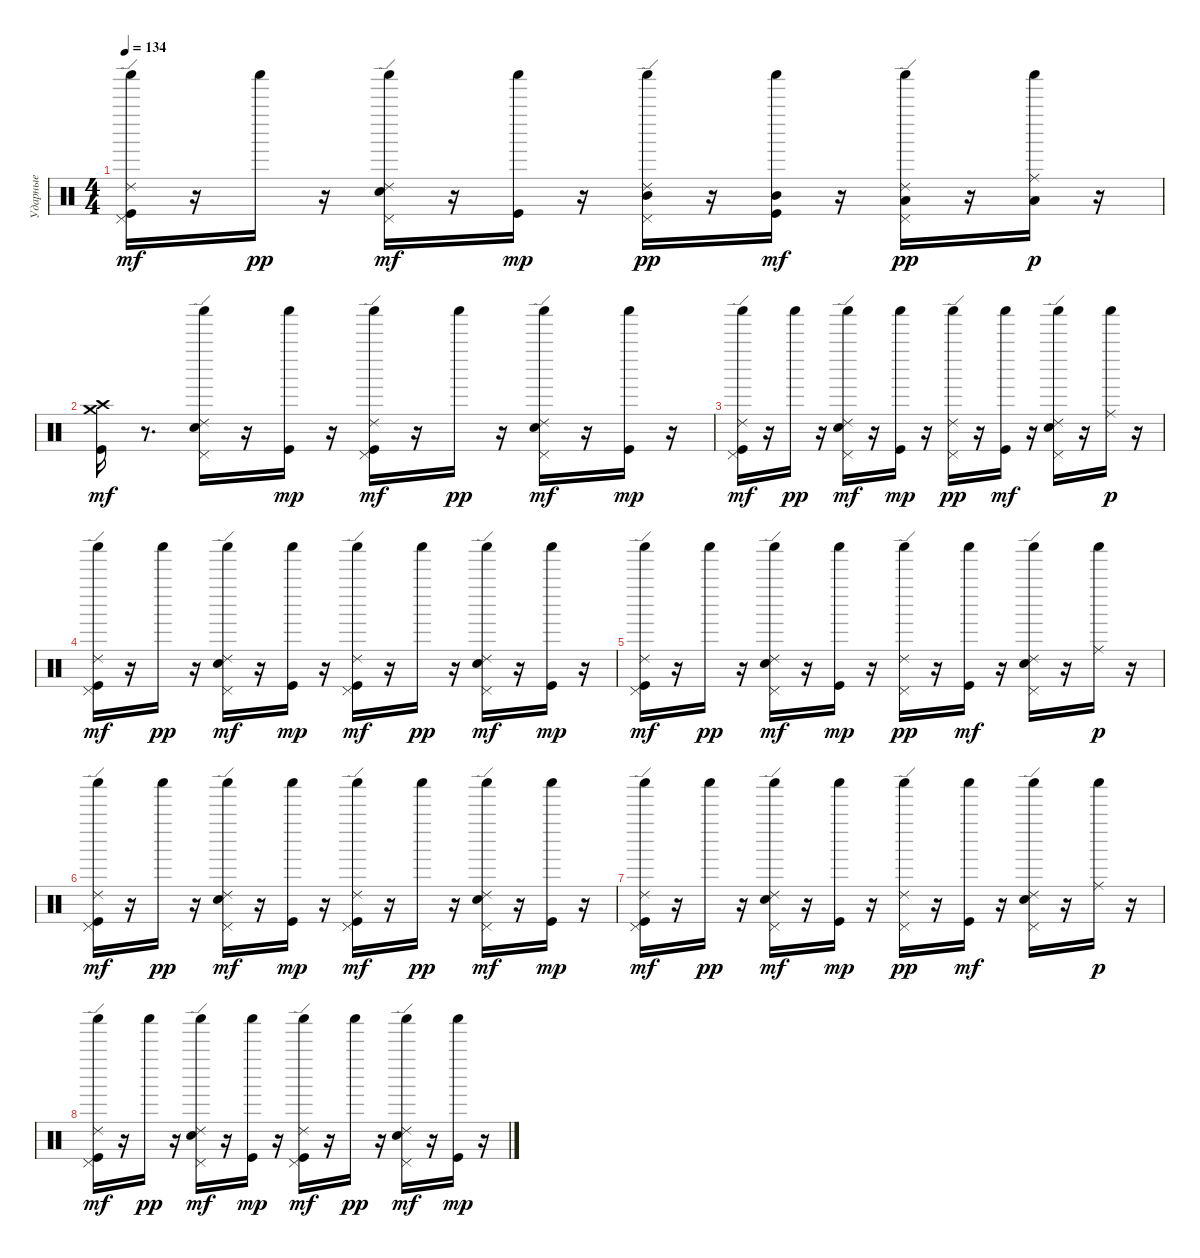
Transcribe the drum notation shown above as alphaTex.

\track ("Ударные" "Ударные") {instrument percussion}
\staff {score}
\articulation defaults
\ts (4 4)
\tempo 134
\clef neutral
\ks c
("Pedal Hi-Hat (hit)" "Ride (edge) 2" "Shaker (hit)" "Kick (hit)").16{dy mf} r.16 "Shaker (hit)".16{dy pp} r.16 ("Pedal Hi-Hat (hit)" "Ride (edge) 2" "Shaker (hit)" "Snare (hit) 2").16{dy mf} r.16 ("Shaker (hit)" "Kick (hit)").16{dy mp} r.16 ("Pedal Hi-Hat (hit)" "Mid Tom (hit)" "Ride (edge) 2" "Shaker (hit)").16{dy pp} r.16 ("Mid Tom (hit)" "Shaker (hit)" "Kick (hit)").16{dy mf} r.16 ("Pedal Hi-Hat (hit)" "Low Tom (hit)" "Ride (edge) 2" "Shaker (hit)").16{dy pp} r.16 ("Low Floor Tom (hit)" "Shaker (hit)" "Ride (middle)").16{dy p} r.16 |
("Crash medium (hit)" "Crash high (hit)" "Kick (hit)").16{dy mf} r.8{d} ("Pedal Hi-Hat (hit)" "Ride (edge) 2" "Shaker (hit)" "Snare (hit) 2").16 r.16 ("Shaker (hit)" "Kick (hit)").16{dy mp} r.16 ("Pedal Hi-Hat (hit)" "Ride (edge) 2" "Shaker (hit)" "Kick (hit)").16{dy mf} r.16 "Shaker (hit)".16{dy pp} r.16 ("Pedal Hi-Hat (hit)" "Ride (edge) 2" "Shaker (hit)" "Snare (hit) 2").16{dy mf} r.16 ("Shaker (hit)" "Kick (hit)").16{dy mp} r.16 |
("Pedal Hi-Hat (hit)" "Ride (edge) 2" "Shaker (hit)" "Kick (hit)").16{dy mf} r.16 "Shaker (hit)".16{dy pp} r.16 ("Pedal Hi-Hat (hit)" "Ride (edge) 2" "Shaker (hit)" "Snare (hit) 2").16{dy mf} r.16 ("Shaker (hit)" "Kick (hit)").16{dy mp} r.16 ("Pedal Hi-Hat (hit)" "Ride (edge) 2" "Shaker (hit)").16{dy pp} r.16 ("Shaker (hit)" "Kick (hit)").16{dy mf} r.16 ("Pedal Hi-Hat (hit)" "Ride (edge) 2" "Shaker (hit)" "Snare (hit) 2").16 r.16 ("Shaker (hit)" "Ride (middle)").16{dy p} r.16 |
("Pedal Hi-Hat (hit)" "Ride (edge) 2" "Shaker (hit)" "Kick (hit)").16{dy mf} r.16 "Shaker (hit)".16{dy pp} r.16 ("Pedal Hi-Hat (hit)" "Ride (edge) 2" "Shaker (hit)" "Snare (hit) 2").16{dy mf} r.16 ("Shaker (hit)" "Kick (hit)").16{dy mp} r.16 ("Pedal Hi-Hat (hit)" "Ride (edge) 2" "Shaker (hit)" "Kick (hit)").16{dy mf} r.16 "Shaker (hit)".16{dy pp} r.16 ("Pedal Hi-Hat (hit)" "Ride (edge) 2" "Shaker (hit)" "Snare (hit) 2").16{dy mf} r.16 ("Shaker (hit)" "Kick (hit)").16{dy mp} r.16 |
("Pedal Hi-Hat (hit)" "Ride (edge) 2" "Shaker (hit)" "Kick (hit)").16{dy mf} r.16 "Shaker (hit)".16{dy pp} r.16 ("Pedal Hi-Hat (hit)" "Ride (edge) 2" "Shaker (hit)" "Snare (hit) 2").16{dy mf} r.16 ("Shaker (hit)" "Kick (hit)").16{dy mp} r.16 ("Pedal Hi-Hat (hit)" "Ride (edge) 2" "Shaker (hit)").16{dy pp} r.16 ("Shaker (hit)" "Kick (hit)").16{dy mf} r.16 ("Pedal Hi-Hat (hit)" "Ride (edge) 2" "Shaker (hit)" "Snare (hit) 2").16 r.16 ("Shaker (hit)" "Ride (middle)").16{dy p} r.16 |
("Pedal Hi-Hat (hit)" "Ride (edge) 2" "Shaker (hit)" "Kick (hit)").16{dy mf} r.16 "Shaker (hit)".16{dy pp} r.16 ("Pedal Hi-Hat (hit)" "Ride (edge) 2" "Shaker (hit)" "Snare (hit) 2").16{dy mf} r.16 ("Shaker (hit)" "Kick (hit)").16{dy mp} r.16 ("Pedal Hi-Hat (hit)" "Ride (edge) 2" "Shaker (hit)" "Kick (hit)").16{dy mf} r.16 "Shaker (hit)".16{dy pp} r.16 ("Pedal Hi-Hat (hit)" "Ride (edge) 2" "Shaker (hit)" "Snare (hit) 2").16{dy mf} r.16 ("Shaker (hit)" "Kick (hit)").16{dy mp} r.16 |
("Pedal Hi-Hat (hit)" "Ride (edge) 2" "Shaker (hit)" "Kick (hit)").16{dy mf} r.16 "Shaker (hit)".16{dy pp} r.16 ("Pedal Hi-Hat (hit)" "Ride (edge) 2" "Shaker (hit)" "Snare (hit) 2").16{dy mf} r.16 ("Shaker (hit)" "Kick (hit)").16{dy mp} r.16 ("Pedal Hi-Hat (hit)" "Ride (edge) 2" "Shaker (hit)").16{dy pp} r.16 ("Shaker (hit)" "Kick (hit)").16{dy mf} r.16 ("Pedal Hi-Hat (hit)" "Ride (edge) 2" "Shaker (hit)" "Snare (hit) 2").16 r.16 ("Shaker (hit)" "Ride (middle)").16{dy p} r.16 |
("Pedal Hi-Hat (hit)" "Ride (edge) 2" "Shaker (hit)" "Kick (hit)").16{dy mf} r.16 "Shaker (hit)".16{dy pp} r.16 ("Pedal Hi-Hat (hit)" "Ride (edge) 2" "Shaker (hit)" "Snare (hit) 2").16{dy mf} r.16 ("Shaker (hit)" "Kick (hit)").16{dy mp} r.16 ("Pedal Hi-Hat (hit)" "Ride (edge) 2" "Shaker (hit)" "Kick (hit)").16{dy mf} r.16 "Shaker (hit)".16{dy pp} r.16 ("Pedal Hi-Hat (hit)" "Ride (edge) 2" "Shaker (hit)" "Snare (hit) 2").16{dy mf} r.16 ("Shaker (hit)" "Kick (hit)").16{dy mp} r.16
